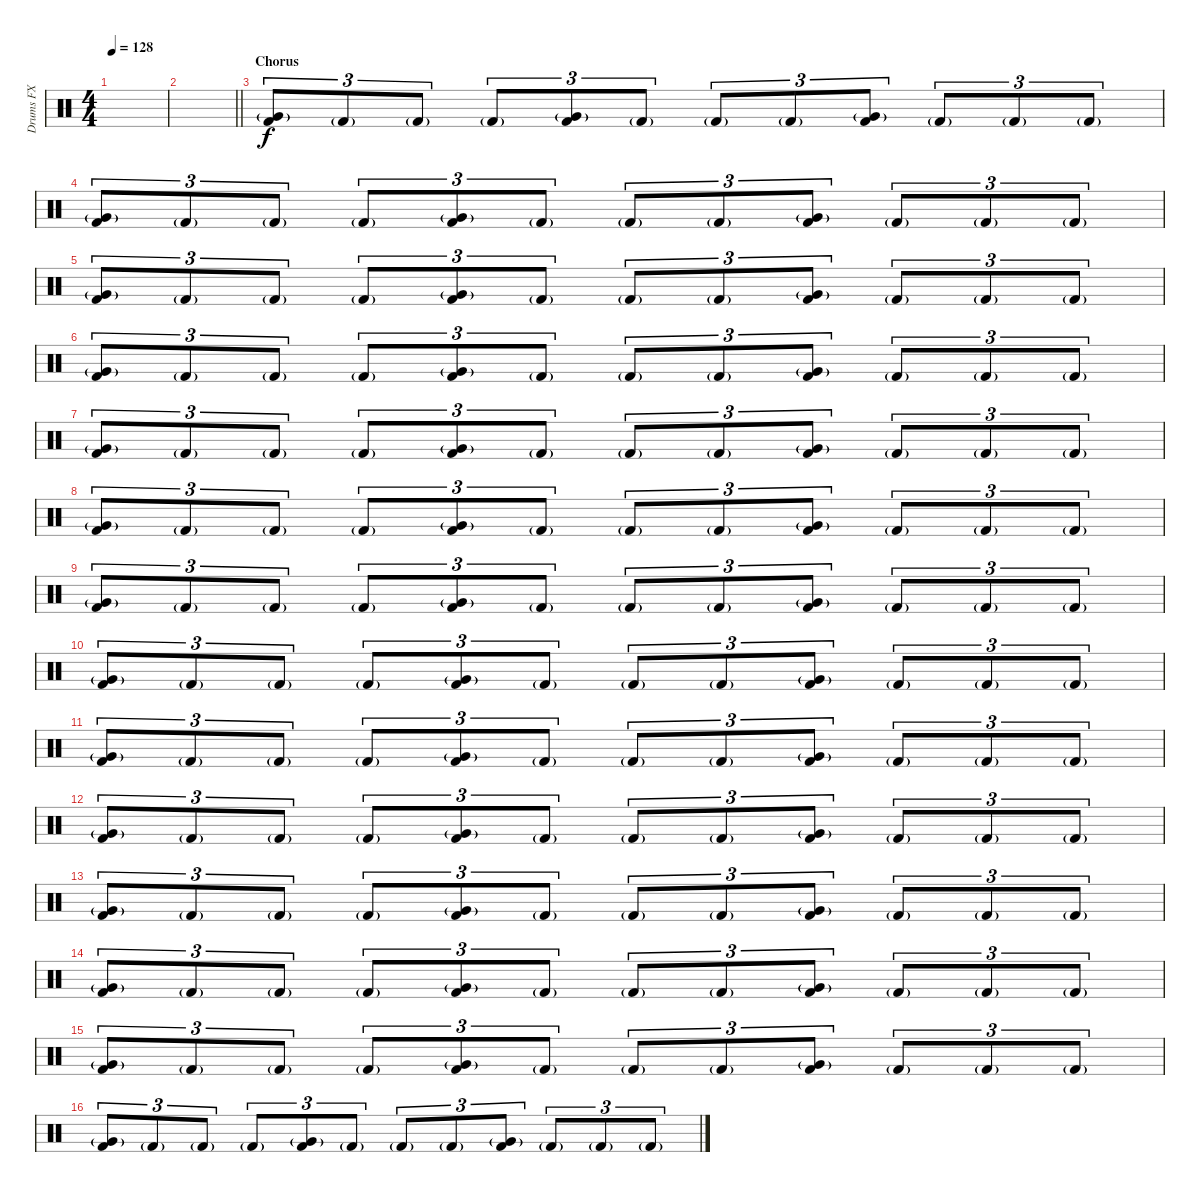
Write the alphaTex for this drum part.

\track ("Drums FX" "Drums FX") {instrument percussion}
\staff {score}
\articulation defaults
\ts (4 4)
\section ("" "")
\tempo 128
\clef neutral
\ks c
|
\barLineRight lightlight
|
\section ("" "Chorus")
("Very Low Tom (hit)"{g} "Kick (hit) 2").8{tu (3 2)} "Kick (hit) 2"{g}.8{tu (3 2)} "Kick (hit) 2"{g}.8{tu (3 2)} "Kick (hit) 2"{g}.8{tu (3 2)} ("Very Low Tom (hit)"{g} "Kick (hit) 2").8{tu (3 2)} "Kick (hit) 2"{g}.8{tu (3 2)} "Kick (hit) 2"{g}.8{tu (3 2)} "Kick (hit) 2"{g}.8{tu (3 2)} ("Very Low Tom (hit)"{g} "Kick (hit) 2").8{tu (3 2)} "Kick (hit) 2"{g}.8{tu (3 2)} "Kick (hit) 2"{g}.8{tu (3 2)} "Kick (hit) 2"{g}.8{tu (3 2)} |
("Very Low Tom (hit)"{g} "Kick (hit) 2").8{tu (3 2)} "Kick (hit) 2"{g}.8{tu (3 2)} "Kick (hit) 2"{g}.8{tu (3 2)} "Kick (hit) 2"{g}.8{tu (3 2)} ("Very Low Tom (hit)"{g} "Kick (hit) 2").8{tu (3 2)} "Kick (hit) 2"{g}.8{tu (3 2)} "Kick (hit) 2"{g}.8{tu (3 2)} "Kick (hit) 2"{g}.8{tu (3 2)} ("Very Low Tom (hit)"{g} "Kick (hit) 2").8{tu (3 2)} "Kick (hit) 2"{g}.8{tu (3 2)} "Kick (hit) 2"{g}.8{tu (3 2)} "Kick (hit) 2"{g}.8{tu (3 2)} |
("Very Low Tom (hit)"{g} "Kick (hit) 2").8{tu (3 2)} "Kick (hit) 2"{g}.8{tu (3 2)} "Kick (hit) 2"{g}.8{tu (3 2)} "Kick (hit) 2"{g}.8{tu (3 2)} ("Very Low Tom (hit)"{g} "Kick (hit) 2").8{tu (3 2)} "Kick (hit) 2"{g}.8{tu (3 2)} "Kick (hit) 2"{g}.8{tu (3 2)} "Kick (hit) 2"{g}.8{tu (3 2)} ("Very Low Tom (hit)"{g} "Kick (hit) 2").8{tu (3 2)} "Kick (hit) 2"{g}.8{tu (3 2)} "Kick (hit) 2"{g}.8{tu (3 2)} "Kick (hit) 2"{g}.8{tu (3 2)} |
("Very Low Tom (hit)"{g} "Kick (hit) 2").8{tu (3 2)} "Kick (hit) 2"{g}.8{tu (3 2)} "Kick (hit) 2"{g}.8{tu (3 2)} "Kick (hit) 2"{g}.8{tu (3 2)} ("Very Low Tom (hit)"{g} "Kick (hit) 2").8{tu (3 2)} "Kick (hit) 2"{g}.8{tu (3 2)} "Kick (hit) 2"{g}.8{tu (3 2)} "Kick (hit) 2"{g}.8{tu (3 2)} ("Very Low Tom (hit)"{g} "Kick (hit) 2").8{tu (3 2)} "Kick (hit) 2"{g}.8{tu (3 2)} "Kick (hit) 2"{g}.8{tu (3 2)} "Kick (hit) 2"{g}.8{tu (3 2)} |
("Very Low Tom (hit)"{g} "Kick (hit) 2").8{tu (3 2)} "Kick (hit) 2"{g}.8{tu (3 2)} "Kick (hit) 2"{g}.8{tu (3 2)} "Kick (hit) 2"{g}.8{tu (3 2)} ("Very Low Tom (hit)"{g} "Kick (hit) 2").8{tu (3 2)} "Kick (hit) 2"{g}.8{tu (3 2)} "Kick (hit) 2"{g}.8{tu (3 2)} "Kick (hit) 2"{g}.8{tu (3 2)} ("Very Low Tom (hit)"{g} "Kick (hit) 2").8{tu (3 2)} "Kick (hit) 2"{g}.8{tu (3 2)} "Kick (hit) 2"{g}.8{tu (3 2)} "Kick (hit) 2"{g}.8{tu (3 2)} |
("Very Low Tom (hit)"{g} "Kick (hit) 2").8{tu (3 2)} "Kick (hit) 2"{g}.8{tu (3 2)} "Kick (hit) 2"{g}.8{tu (3 2)} "Kick (hit) 2"{g}.8{tu (3 2)} ("Very Low Tom (hit)"{g} "Kick (hit) 2").8{tu (3 2)} "Kick (hit) 2"{g}.8{tu (3 2)} "Kick (hit) 2"{g}.8{tu (3 2)} "Kick (hit) 2"{g}.8{tu (3 2)} ("Very Low Tom (hit)"{g} "Kick (hit) 2").8{tu (3 2)} "Kick (hit) 2"{g}.8{tu (3 2)} "Kick (hit) 2"{g}.8{tu (3 2)} "Kick (hit) 2"{g}.8{tu (3 2)} |
("Very Low Tom (hit)"{g} "Kick (hit) 2").8{tu (3 2)} "Kick (hit) 2"{g}.8{tu (3 2)} "Kick (hit) 2"{g}.8{tu (3 2)} "Kick (hit) 2"{g}.8{tu (3 2)} ("Very Low Tom (hit)"{g} "Kick (hit) 2").8{tu (3 2)} "Kick (hit) 2"{g}.8{tu (3 2)} "Kick (hit) 2"{g}.8{tu (3 2)} "Kick (hit) 2"{g}.8{tu (3 2)} ("Very Low Tom (hit)"{g} "Kick (hit) 2").8{tu (3 2)} "Kick (hit) 2"{g}.8{tu (3 2)} "Kick (hit) 2"{g}.8{tu (3 2)} "Kick (hit) 2"{g}.8{tu (3 2)} |
("Very Low Tom (hit)"{g} "Kick (hit) 2").8{tu (3 2)} "Kick (hit) 2"{g}.8{tu (3 2)} "Kick (hit) 2"{g}.8{tu (3 2)} "Kick (hit) 2"{g}.8{tu (3 2)} ("Very Low Tom (hit)"{g} "Kick (hit) 2").8{tu (3 2)} "Kick (hit) 2"{g}.8{tu (3 2)} "Kick (hit) 2"{g}.8{tu (3 2)} "Kick (hit) 2"{g}.8{tu (3 2)} ("Very Low Tom (hit)"{g} "Kick (hit) 2").8{tu (3 2)} "Kick (hit) 2"{g}.8{tu (3 2)} "Kick (hit) 2"{g}.8{tu (3 2)} "Kick (hit) 2"{g}.8{tu (3 2)} |
("Very Low Tom (hit)"{g} "Kick (hit) 2").8{tu (3 2)} "Kick (hit) 2"{g}.8{tu (3 2)} "Kick (hit) 2"{g}.8{tu (3 2)} "Kick (hit) 2"{g}.8{tu (3 2)} ("Very Low Tom (hit)"{g} "Kick (hit) 2").8{tu (3 2)} "Kick (hit) 2"{g}.8{tu (3 2)} "Kick (hit) 2"{g}.8{tu (3 2)} "Kick (hit) 2"{g}.8{tu (3 2)} ("Very Low Tom (hit)"{g} "Kick (hit) 2").8{tu (3 2)} "Kick (hit) 2"{g}.8{tu (3 2)} "Kick (hit) 2"{g}.8{tu (3 2)} "Kick (hit) 2"{g}.8{tu (3 2)} |
("Very Low Tom (hit)"{g} "Kick (hit) 2").8{tu (3 2)} "Kick (hit) 2"{g}.8{tu (3 2)} "Kick (hit) 2"{g}.8{tu (3 2)} "Kick (hit) 2"{g}.8{tu (3 2)} ("Very Low Tom (hit)"{g} "Kick (hit) 2").8{tu (3 2)} "Kick (hit) 2"{g}.8{tu (3 2)} "Kick (hit) 2"{g}.8{tu (3 2)} "Kick (hit) 2"{g}.8{tu (3 2)} ("Very Low Tom (hit)"{g} "Kick (hit) 2").8{tu (3 2)} "Kick (hit) 2"{g}.8{tu (3 2)} "Kick (hit) 2"{g}.8{tu (3 2)} "Kick (hit) 2"{g}.8{tu (3 2)} |
("Very Low Tom (hit)"{g} "Kick (hit) 2").8{tu (3 2)} "Kick (hit) 2"{g}.8{tu (3 2)} "Kick (hit) 2"{g}.8{tu (3 2)} "Kick (hit) 2"{g}.8{tu (3 2)} ("Very Low Tom (hit)"{g} "Kick (hit) 2").8{tu (3 2)} "Kick (hit) 2"{g}.8{tu (3 2)} "Kick (hit) 2"{g}.8{tu (3 2)} "Kick (hit) 2"{g}.8{tu (3 2)} ("Very Low Tom (hit)"{g} "Kick (hit) 2").8{tu (3 2)} "Kick (hit) 2"{g}.8{tu (3 2)} "Kick (hit) 2"{g}.8{tu (3 2)} "Kick (hit) 2"{g}.8{tu (3 2)} |
("Very Low Tom (hit)"{g} "Kick (hit) 2").8{tu (3 2)} "Kick (hit) 2"{g}.8{tu (3 2)} "Kick (hit) 2"{g}.8{tu (3 2)} "Kick (hit) 2"{g}.8{tu (3 2)} ("Very Low Tom (hit)"{g} "Kick (hit) 2").8{tu (3 2)} "Kick (hit) 2"{g}.8{tu (3 2)} "Kick (hit) 2"{g}.8{tu (3 2)} "Kick (hit) 2"{g}.8{tu (3 2)} ("Very Low Tom (hit)"{g} "Kick (hit) 2").8{tu (3 2)} "Kick (hit) 2"{g}.8{tu (3 2)} "Kick (hit) 2"{g}.8{tu (3 2)} "Kick (hit) 2"{g}.8{tu (3 2)} |
("Very Low Tom (hit)"{g} "Kick (hit) 2").8{tu (3 2)} "Kick (hit) 2"{g}.8{tu (3 2)} "Kick (hit) 2"{g}.8{tu (3 2)} "Kick (hit) 2"{g}.8{tu (3 2)} ("Very Low Tom (hit)"{g} "Kick (hit) 2").8{tu (3 2)} "Kick (hit) 2"{g}.8{tu (3 2)} "Kick (hit) 2"{g}.8{tu (3 2)} "Kick (hit) 2"{g}.8{tu (3 2)} ("Very Low Tom (hit)"{g} "Kick (hit) 2").8{tu (3 2)} "Kick (hit) 2"{g}.8{tu (3 2)} "Kick (hit) 2"{g}.8{tu (3 2)} "Kick (hit) 2"{g}.8{tu (3 2)} |
("Very Low Tom (hit)"{g} "Kick (hit) 2").8{tu (3 2)} "Kick (hit) 2"{g}.8{tu (3 2)} "Kick (hit) 2"{g}.8{tu (3 2)} "Kick (hit) 2"{g}.8{tu (3 2)} ("Very Low Tom (hit)"{g} "Kick (hit) 2").8{tu (3 2)} "Kick (hit) 2"{g}.8{tu (3 2)} "Kick (hit) 2"{g}.8{tu (3 2)} "Kick (hit) 2"{g}.8{tu (3 2)} ("Very Low Tom (hit)"{g} "Kick (hit) 2").8{tu (3 2)} "Kick (hit) 2"{g}.8{tu (3 2)} "Kick (hit) 2"{g}.8{tu (3 2)} "Kick (hit) 2"{g}.8{tu (3 2)}
